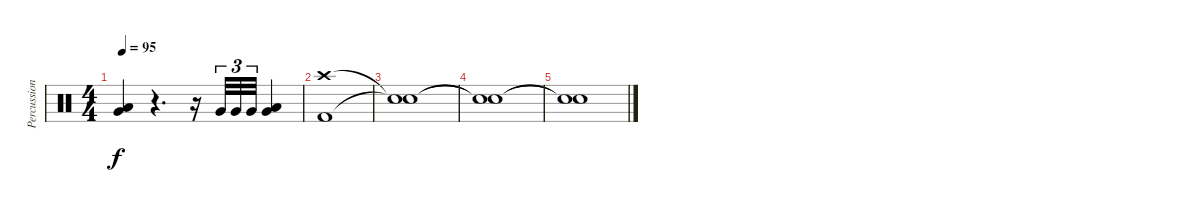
\track ("Percussion" "Percussion") {instrument percussion}
\staff {score}
\articulation defaults
\ts (4 4)
\tempo 95
\clef neutral
\ks c
("Low Tom (hit)" "Very Low Tom (hit)").4{dy f} r.4{d} r.16 "Very Low Tom (hit)".32{tu (3 2)} "Very Low Tom (hit)".32{tu (3 2)} "Very Low Tom (hit)".32{tu (3 2)} ("Low Tom (hit)" "Very Low Tom (hit)").4 |
("Crash high (hit)" "Kick (hit) 2").1 |
("Snare (hit)"{t} "Snare (hit)"{t}).1 |
("Snare (hit)"{t} "Snare (hit)"{t}).1 |
("Snare (hit)"{t} "Snare (hit)"{t}).1
